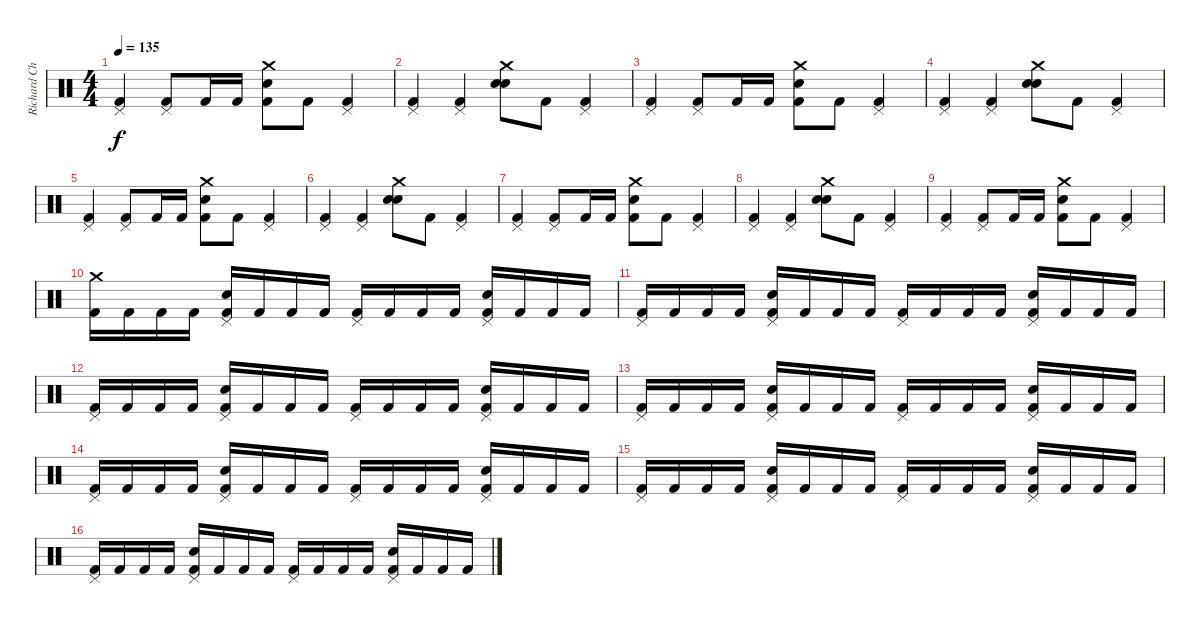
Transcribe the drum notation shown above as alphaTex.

\track ("Richard Christy" "Richard Ch") {instrument percussion}
\staff {score}
\articulation defaults
\ts (4 4)
\tempo 135
\clef neutral
\ks c
("Pedal Hi-Hat (hit)" "Kick (hit) 2").4{dy f} ("Pedal Hi-Hat (hit)" "Kick (hit) 2").8 "Kick (hit) 2".16 "Kick (hit) 2".16 ("Snare (hit) 2" "Crash medium (hit)" "Kick (hit) 2").8 "Kick (hit) 2".8 ("Pedal Hi-Hat (hit)" "Kick (hit) 2").4 |
("Pedal Hi-Hat (hit)" "Kick (hit) 2").4 ("Pedal Hi-Hat (hit)" "Kick (hit) 2").4 ("Snare (hit) 2" "Crash medium (hit)" "Snare (hit) 2").8 "Kick (hit) 2".8 ("Pedal Hi-Hat (hit)" "Kick (hit) 2").4 |
("Pedal Hi-Hat (hit)" "Kick (hit) 2").4 ("Pedal Hi-Hat (hit)" "Kick (hit) 2").8 "Kick (hit) 2".16 "Kick (hit) 2".16 ("Snare (hit) 2" "Crash medium (hit)" "Kick (hit) 2").8 "Kick (hit) 2".8 ("Pedal Hi-Hat (hit)" "Kick (hit) 2").4 |
("Pedal Hi-Hat (hit)" "Kick (hit) 2").4 ("Pedal Hi-Hat (hit)" "Kick (hit) 2").4 ("Snare (hit) 2" "Crash medium (hit)" "Snare (hit) 2").8 "Kick (hit) 2".8 ("Pedal Hi-Hat (hit)" "Kick (hit) 2").4 |
("Pedal Hi-Hat (hit)" "Kick (hit) 2").4 ("Pedal Hi-Hat (hit)" "Kick (hit) 2").8 "Kick (hit) 2".16 "Kick (hit) 2".16 ("Snare (hit) 2" "Crash medium (hit)" "Kick (hit) 2").8 "Kick (hit) 2".8 ("Pedal Hi-Hat (hit)" "Kick (hit) 2").4 |
("Pedal Hi-Hat (hit)" "Kick (hit) 2").4 ("Pedal Hi-Hat (hit)" "Kick (hit) 2").4 ("Snare (hit) 2" "Crash medium (hit)" "Snare (hit) 2").8 "Kick (hit) 2".8 ("Pedal Hi-Hat (hit)" "Kick (hit) 2").4 |
("Pedal Hi-Hat (hit)" "Kick (hit) 2").4 ("Pedal Hi-Hat (hit)" "Kick (hit) 2").8 "Kick (hit) 2".16 "Kick (hit) 2".16 ("Snare (hit) 2" "Crash medium (hit)" "Kick (hit) 2").8 "Kick (hit) 2".8 ("Pedal Hi-Hat (hit)" "Kick (hit) 2").4 |
("Pedal Hi-Hat (hit)" "Kick (hit) 2").4 ("Pedal Hi-Hat (hit)" "Kick (hit) 2").4 ("Snare (hit) 2" "Crash medium (hit)" "Snare (hit) 2").8 "Kick (hit) 2".8 ("Pedal Hi-Hat (hit)" "Kick (hit) 2").4 |
("Pedal Hi-Hat (hit)" "Kick (hit) 2").4 ("Pedal Hi-Hat (hit)" "Kick (hit) 2").8 "Kick (hit) 2".16 "Kick (hit) 2".16 ("Snare (hit) 2" "Crash medium (hit)" "Kick (hit) 2").8 "Kick (hit) 2".8 ("Pedal Hi-Hat (hit)" "Kick (hit) 2").4 |
("Crash medium (hit)" "Kick (hit) 2").16 "Kick (hit) 2".16 "Kick (hit) 2".16 "Kick (hit) 2".16 ("Snare (hit) 2" "Pedal Hi-Hat (hit)" "Kick (hit) 2").16 "Kick (hit) 2".16 "Kick (hit) 2".16 "Kick (hit) 2".16 ("Pedal Hi-Hat (hit)" "Kick (hit) 2").16 "Kick (hit) 2".16 "Kick (hit) 2".16 "Kick (hit) 2".16 ("Snare (hit) 2" "Pedal Hi-Hat (hit)" "Kick (hit) 2").16 "Kick (hit) 2".16 "Kick (hit) 2".16 "Kick (hit) 2".16 |
("Pedal Hi-Hat (hit)" "Kick (hit) 2").16 "Kick (hit) 2".16 "Kick (hit) 2".16 "Kick (hit) 2".16 ("Snare (hit) 2" "Pedal Hi-Hat (hit)" "Kick (hit) 2").16 "Kick (hit) 2".16 "Kick (hit) 2".16 "Kick (hit) 2".16 ("Pedal Hi-Hat (hit)" "Kick (hit) 2").16 "Kick (hit) 2".16 "Kick (hit) 2".16 "Kick (hit) 2".16 ("Snare (hit) 2" "Pedal Hi-Hat (hit)" "Kick (hit) 2").16 "Kick (hit) 2".16 "Kick (hit) 2".16 "Kick (hit) 2".16 |
("Pedal Hi-Hat (hit)" "Kick (hit) 2").16 "Kick (hit) 2".16 "Kick (hit) 2".16 "Kick (hit) 2".16 ("Snare (hit) 2" "Pedal Hi-Hat (hit)" "Kick (hit) 2").16 "Kick (hit) 2".16 "Kick (hit) 2".16 "Kick (hit) 2".16 ("Pedal Hi-Hat (hit)" "Kick (hit) 2").16 "Kick (hit) 2".16 "Kick (hit) 2".16 "Kick (hit) 2".16 ("Snare (hit) 2" "Pedal Hi-Hat (hit)" "Kick (hit) 2").16 "Kick (hit) 2".16 "Kick (hit) 2".16 "Kick (hit) 2".16 |
("Pedal Hi-Hat (hit)" "Kick (hit) 2").16 "Kick (hit) 2".16 "Kick (hit) 2".16 "Kick (hit) 2".16 ("Snare (hit) 2" "Pedal Hi-Hat (hit)" "Kick (hit) 2").16 "Kick (hit) 2".16 "Kick (hit) 2".16 "Kick (hit) 2".16 ("Pedal Hi-Hat (hit)" "Kick (hit) 2").16 "Kick (hit) 2".16 "Kick (hit) 2".16 "Kick (hit) 2".16 ("Snare (hit) 2" "Pedal Hi-Hat (hit)" "Kick (hit) 2").16 "Kick (hit) 2".16 "Kick (hit) 2".16 "Kick (hit) 2".16 |
("Pedal Hi-Hat (hit)" "Kick (hit) 2").16 "Kick (hit) 2".16 "Kick (hit) 2".16 "Kick (hit) 2".16 ("Snare (hit) 2" "Pedal Hi-Hat (hit)" "Kick (hit) 2").16 "Kick (hit) 2".16 "Kick (hit) 2".16 "Kick (hit) 2".16 ("Pedal Hi-Hat (hit)" "Kick (hit) 2").16 "Kick (hit) 2".16 "Kick (hit) 2".16 "Kick (hit) 2".16 ("Snare (hit) 2" "Pedal Hi-Hat (hit)" "Kick (hit) 2").16 "Kick (hit) 2".16 "Kick (hit) 2".16 "Kick (hit) 2".16 |
("Pedal Hi-Hat (hit)" "Kick (hit) 2").16 "Kick (hit) 2".16 "Kick (hit) 2".16 "Kick (hit) 2".16 ("Snare (hit) 2" "Pedal Hi-Hat (hit)" "Kick (hit) 2").16 "Kick (hit) 2".16 "Kick (hit) 2".16 "Kick (hit) 2".16 ("Pedal Hi-Hat (hit)" "Kick (hit) 2").16 "Kick (hit) 2".16 "Kick (hit) 2".16 "Kick (hit) 2".16 ("Snare (hit) 2" "Pedal Hi-Hat (hit)" "Kick (hit) 2").16 "Kick (hit) 2".16 "Kick (hit) 2".16 "Kick (hit) 2".16 |
("Pedal Hi-Hat (hit)" "Kick (hit) 2").16 "Kick (hit) 2".16 "Kick (hit) 2".16 "Kick (hit) 2".16 ("Snare (hit) 2" "Pedal Hi-Hat (hit)" "Kick (hit) 2").16 "Kick (hit) 2".16 "Kick (hit) 2".16 "Kick (hit) 2".16 ("Pedal Hi-Hat (hit)" "Kick (hit) 2").16 "Kick (hit) 2".16 "Kick (hit) 2".16 "Kick (hit) 2".16 ("Snare (hit) 2" "Pedal Hi-Hat (hit)" "Kick (hit) 2").16 "Kick (hit) 2".16 "Kick (hit) 2".16 "Kick (hit) 2".16
